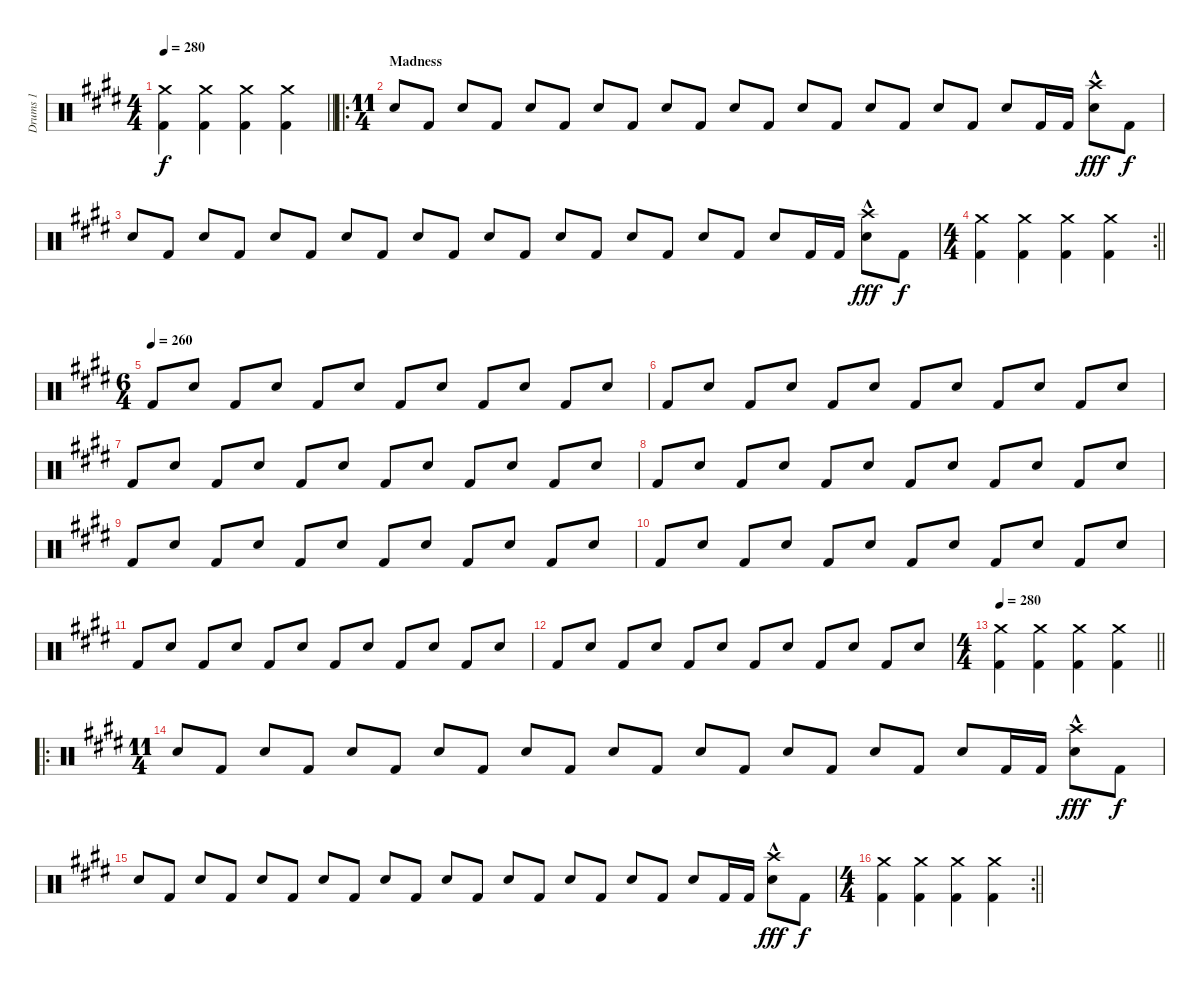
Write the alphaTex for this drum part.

\track ("Drums 1" "Drums 1") {instrument percussion}
\staff {score}
\articulation defaults
\ts (4 4)
\tempo 280
\clef neutral
\barLineRight lightlight
\ks c#minor
("Crash medium (hit)" "Kick (hit) 2").4{dy f} ("Crash medium (hit)" "Kick (hit) 2").4 ("Crash medium (hit)" "Kick (hit) 2").4 ("Crash medium (hit)" "Kick (hit) 2").4 |
\ro
\ts (11 4)
\section ("" "Madness")
"Electric Snare (hit)".8 "Kick (hit) 2".8 "Electric Snare (hit)".8 "Kick (hit) 2".8 "Electric Snare (hit)".8 "Kick (hit) 2".8 "Electric Snare (hit)".8 "Kick (hit) 2".8 "Electric Snare (hit)".8 "Kick (hit) 2".8 "Electric Snare (hit)".8 "Kick (hit) 2".8 "Electric Snare (hit)".8 "Kick (hit) 2".8 "Electric Snare (hit)".8 "Kick (hit) 2".8 "Electric Snare (hit)".8 "Kick (hit) 2".8 "Electric Snare (hit)".8 "Kick (hit) 2".16 "Kick (hit) 2".16 ("Crash high (hit)" "Electric Snare (hit)"{hac}).8{dy fff} "Kick (hit) 2".8{dy f} |
"Electric Snare (hit)".8 "Kick (hit) 2".8 "Electric Snare (hit)".8 "Kick (hit) 2".8 "Electric Snare (hit)".8 "Kick (hit) 2".8 "Electric Snare (hit)".8 "Kick (hit) 2".8 "Electric Snare (hit)".8 "Kick (hit) 2".8 "Electric Snare (hit)".8 "Kick (hit) 2".8 "Electric Snare (hit)".8 "Kick (hit) 2".8 "Electric Snare (hit)".8 "Kick (hit) 2".8 "Electric Snare (hit)".8 "Kick (hit) 2".8 "Electric Snare (hit)".8 "Kick (hit) 2".16 "Kick (hit) 2".16 ("Crash high (hit)" "Electric Snare (hit)"{hac}).8{dy fff} "Kick (hit) 2".8{dy f} |
\rc 2
\ts (4 4)
\barLineRight lightlight
("Crash medium (hit)" "Kick (hit) 2").4 ("Crash medium (hit)" "Kick (hit) 2").4 ("Crash medium (hit)" "Kick (hit) 2").4 ("Crash medium (hit)" "Kick (hit) 2").4 |
\ts (6 4)
\tempo (260)
"Kick (hit) 2".8 "Electric Snare (hit)".8 "Kick (hit) 2".8 "Electric Snare (hit)".8 "Kick (hit) 2".8 "Electric Snare (hit)".8 "Kick (hit) 2".8 "Electric Snare (hit)".8 "Kick (hit) 2".8 "Electric Snare (hit)".8 "Kick (hit) 2".8 "Electric Snare (hit)".8 |
"Kick (hit) 2".8 "Electric Snare (hit)".8 "Kick (hit) 2".8 "Electric Snare (hit)".8 "Kick (hit) 2".8 "Electric Snare (hit)".8 "Kick (hit) 2".8 "Electric Snare (hit)".8 "Kick (hit) 2".8 "Electric Snare (hit)".8 "Kick (hit) 2".8 "Electric Snare (hit)".8 |
"Kick (hit) 2".8 "Electric Snare (hit)".8 "Kick (hit) 2".8 "Electric Snare (hit)".8 "Kick (hit) 2".8 "Electric Snare (hit)".8 "Kick (hit) 2".8 "Electric Snare (hit)".8 "Kick (hit) 2".8 "Electric Snare (hit)".8 "Kick (hit) 2".8 "Electric Snare (hit)".8 |
"Kick (hit) 2".8 "Electric Snare (hit)".8 "Kick (hit) 2".8 "Electric Snare (hit)".8 "Kick (hit) 2".8 "Electric Snare (hit)".8 "Kick (hit) 2".8 "Electric Snare (hit)".8 "Kick (hit) 2".8 "Electric Snare (hit)".8 "Kick (hit) 2".8 "Electric Snare (hit)".8 |
"Kick (hit) 2".8 "Electric Snare (hit)".8 "Kick (hit) 2".8 "Electric Snare (hit)".8 "Kick (hit) 2".8 "Electric Snare (hit)".8 "Kick (hit) 2".8 "Electric Snare (hit)".8 "Kick (hit) 2".8 "Electric Snare (hit)".8 "Kick (hit) 2".8 "Electric Snare (hit)".8 |
"Kick (hit) 2".8 "Electric Snare (hit)".8 "Kick (hit) 2".8 "Electric Snare (hit)".8 "Kick (hit) 2".8 "Electric Snare (hit)".8 "Kick (hit) 2".8 "Electric Snare (hit)".8 "Kick (hit) 2".8 "Electric Snare (hit)".8 "Kick (hit) 2".8 "Electric Snare (hit)".8 |
"Kick (hit) 2".8 "Electric Snare (hit)".8 "Kick (hit) 2".8 "Electric Snare (hit)".8 "Kick (hit) 2".8 "Electric Snare (hit)".8 "Kick (hit) 2".8 "Electric Snare (hit)".8 "Kick (hit) 2".8 "Electric Snare (hit)".8 "Kick (hit) 2".8 "Electric Snare (hit)".8 |
"Kick (hit) 2".8 "Electric Snare (hit)".8 "Kick (hit) 2".8 "Electric Snare (hit)".8 "Kick (hit) 2".8 "Electric Snare (hit)".8 "Kick (hit) 2".8 "Electric Snare (hit)".8 "Kick (hit) 2".8 "Electric Snare (hit)".8 "Kick (hit) 2".8 "Electric Snare (hit)".8 |
\ts (4 4)
\tempo 280
\barLineRight lightlight
("Crash medium (hit)" "Kick (hit) 2").4 ("Crash medium (hit)" "Kick (hit) 2").4 ("Crash medium (hit)" "Kick (hit) 2").4 ("Crash medium (hit)" "Kick (hit) 2").4 |
\ro
\ts (11 4)
"Electric Snare (hit)".8 "Kick (hit) 2".8 "Electric Snare (hit)".8 "Kick (hit) 2".8 "Electric Snare (hit)".8 "Kick (hit) 2".8 "Electric Snare (hit)".8 "Kick (hit) 2".8 "Electric Snare (hit)".8 "Kick (hit) 2".8 "Electric Snare (hit)".8 "Kick (hit) 2".8 "Electric Snare (hit)".8 "Kick (hit) 2".8 "Electric Snare (hit)".8 "Kick (hit) 2".8 "Electric Snare (hit)".8 "Kick (hit) 2".8 "Electric Snare (hit)".8 "Kick (hit) 2".16 "Kick (hit) 2".16 ("Crash high (hit)" "Electric Snare (hit)"{hac}).8{dy fff} "Kick (hit) 2".8{dy f} |
"Electric Snare (hit)".8 "Kick (hit) 2".8 "Electric Snare (hit)".8 "Kick (hit) 2".8 "Electric Snare (hit)".8 "Kick (hit) 2".8 "Electric Snare (hit)".8 "Kick (hit) 2".8 "Electric Snare (hit)".8 "Kick (hit) 2".8 "Electric Snare (hit)".8 "Kick (hit) 2".8 "Electric Snare (hit)".8 "Kick (hit) 2".8 "Electric Snare (hit)".8 "Kick (hit) 2".8 "Electric Snare (hit)".8 "Kick (hit) 2".8 "Electric Snare (hit)".8 "Kick (hit) 2".16 "Kick (hit) 2".16 ("Crash high (hit)" "Electric Snare (hit)"{hac}).8{dy fff} "Kick (hit) 2".8{dy f} |
\rc 2
\ts (4 4)
\barLineRight lightlight
("Crash medium (hit)" "Kick (hit) 2").4 ("Crash medium (hit)" "Kick (hit) 2").4 ("Crash medium (hit)" "Kick (hit) 2").4 ("Crash medium (hit)" "Kick (hit) 2").4
